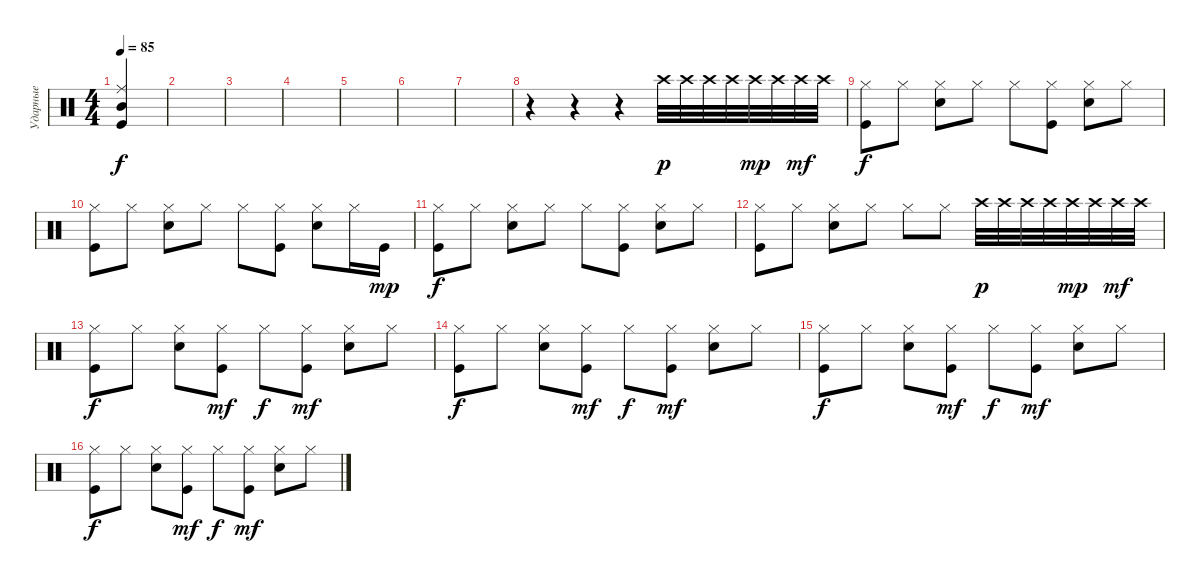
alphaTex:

\track ("Ударные" "Ударные") {instrument percussion}
\staff {score}
\articulation defaults
\ts (4 4)
\tempo 85
\clef neutral
\ks c
("Mid Tom (hit)" "Ride (middle)" "Kick (hit)").4{dy f} |
|
|
|
|
|
|
r.4 r.4 r.4 "Crash high (hit)".32{dy p} "Crash high (hit)".32 "Crash high (hit)".32 "Crash high (hit)".32 "Crash high (hit)".32{dy mp} "Crash high (hit)".32 "Crash high (hit)".32{dy mf} "Crash high (hit)".32 |
("Hi-Hat (closed)" "Kick (hit)").8{dy f} "Hi-Hat (closed)".8 ("Hi-Hat (closed)" "Electric Snare (hit)").8 "Hi-Hat (closed)".8 "Hi-Hat (closed)".8 ("Hi-Hat (closed)" "Kick (hit)").8 ("Hi-Hat (closed)" "Electric Snare (hit)").8 "Hi-Hat (closed)".8 |
("Hi-Hat (closed)" "Kick (hit)").8 "Hi-Hat (closed)".8 ("Hi-Hat (closed)" "Electric Snare (hit)").8 "Hi-Hat (closed)".8 "Hi-Hat (closed)".8 ("Hi-Hat (closed)" "Kick (hit)").8 ("Hi-Hat (closed)" "Electric Snare (hit)").8 "Hi-Hat (closed)".16 "Kick (hit)".16{dy mp} |
("Hi-Hat (closed)" "Kick (hit)").8{dy f} "Hi-Hat (closed)".8 ("Hi-Hat (closed)" "Electric Snare (hit)").8 "Hi-Hat (closed)".8 "Hi-Hat (closed)".8 ("Hi-Hat (closed)" "Kick (hit)").8 ("Hi-Hat (closed)" "Electric Snare (hit)").8 "Hi-Hat (closed)".8 |
("Hi-Hat (closed)" "Kick (hit)").8 "Hi-Hat (closed)".8 ("Hi-Hat (closed)" "Electric Snare (hit)").8 "Hi-Hat (closed)".8 "Hi-Hat (closed)".8 "Hi-Hat (closed)".8 "Crash high (hit)".32{dy p} "Crash high (hit)".32 "Crash high (hit)".32 "Crash high (hit)".32 "Crash high (hit)".32{dy mp} "Crash high (hit)".32 "Crash high (hit)".32{dy mf} "Crash high (hit)".32 |
("Hi-Hat (closed)" "Kick (hit)").8{dy f} "Hi-Hat (closed)".8 ("Hi-Hat (closed)" "Electric Snare (hit)").8 ("Hi-Hat (closed)" "Kick (hit)").8{dy mf} "Hi-Hat (closed)".8{dy f} ("Hi-Hat (closed)" "Kick (hit)").8{dy mf} ("Hi-Hat (closed)" "Electric Snare (hit)").8 "Hi-Hat (closed)".8 |
("Hi-Hat (closed)" "Kick (hit)").8{dy f} "Hi-Hat (closed)".8 ("Hi-Hat (closed)" "Electric Snare (hit)").8 ("Hi-Hat (closed)" "Kick (hit)").8{dy mf} "Hi-Hat (closed)".8{dy f} ("Hi-Hat (closed)" "Kick (hit)").8{dy mf} ("Hi-Hat (closed)" "Electric Snare (hit)").8 "Hi-Hat (closed)".8 |
("Hi-Hat (closed)" "Kick (hit)").8{dy f} "Hi-Hat (closed)".8 ("Hi-Hat (closed)" "Electric Snare (hit)").8 ("Hi-Hat (closed)" "Kick (hit)").8{dy mf} "Hi-Hat (closed)".8{dy f} ("Hi-Hat (closed)" "Kick (hit)").8{dy mf} ("Hi-Hat (closed)" "Electric Snare (hit)").8 "Hi-Hat (closed)".8 |
("Hi-Hat (closed)" "Kick (hit)").8{dy f} "Hi-Hat (closed)".8 ("Hi-Hat (closed)" "Electric Snare (hit)").8 ("Hi-Hat (closed)" "Kick (hit)").8{dy mf} "Hi-Hat (closed)".8{dy f} ("Hi-Hat (closed)" "Kick (hit)").8{dy mf} ("Hi-Hat (closed)" "Electric Snare (hit)").8 "Hi-Hat (closed)".8
